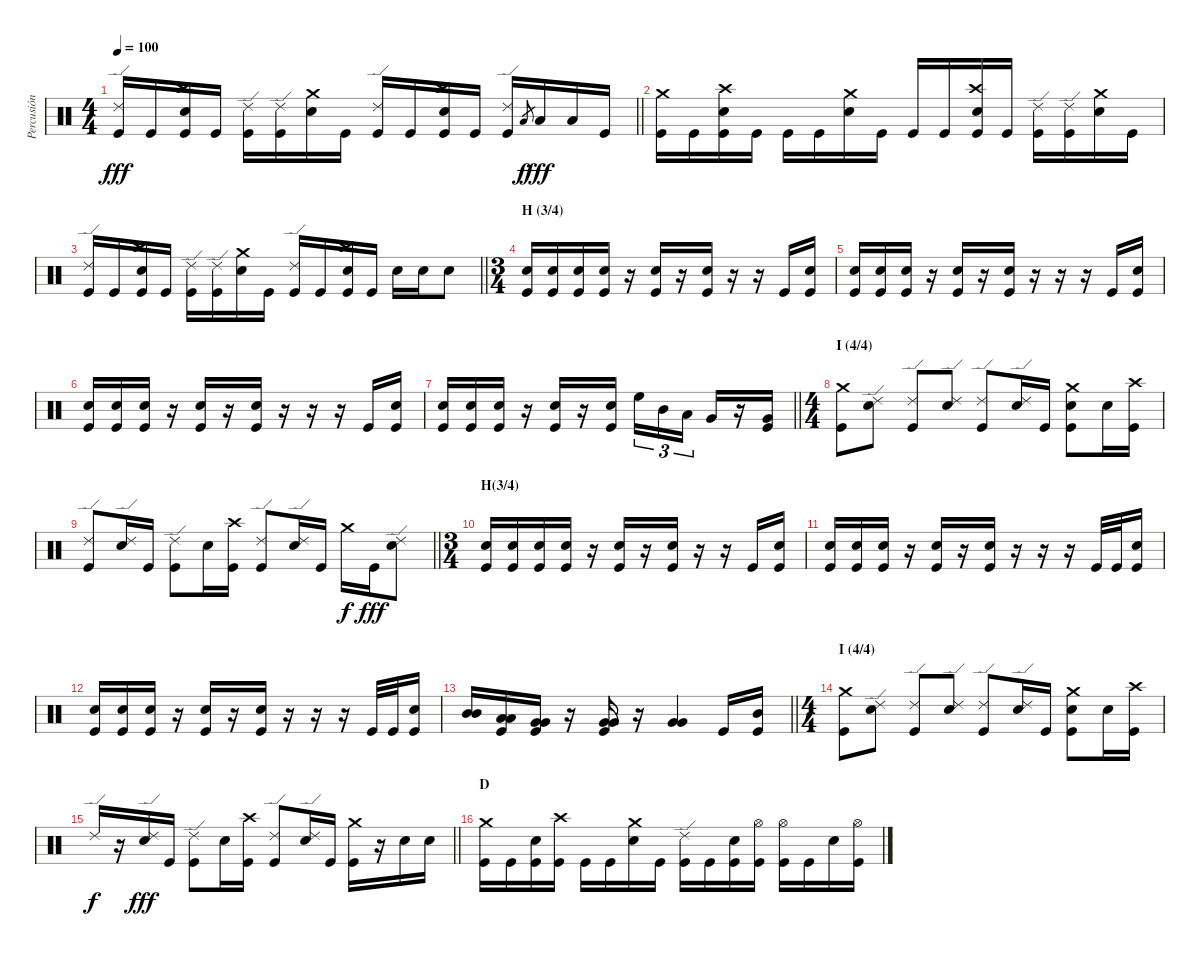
\track ("Percusión" "Percusión") {instrument percussion}
\staff {score}
\articulation defaults
\ts (4 4)
\tempo 100
\clef neutral
\barLineRight lightlight
\ks c
("Ride (edge) 2" "Kick (hit)").16{dy fff} "Kick (hit)".16 ("Crash high (hit)" "Electric Snare (hit)" "Kick (hit)").16 "Kick (hit)".16 ("Ride (edge) 2" "Kick (hit)").16 ("Ride (edge) 2" "Kick (hit)").16 ("Crash medium (hit)" "Electric Snare (hit)").16 "Kick (hit)".16 ("Ride (edge) 2" "Kick (hit)").16 "Kick (hit)".16 ("Crash high (hit)" "Electric Snare (hit)" "Kick (hit)").16 "Kick (hit)".16 ("Ride (edge) 2" "Kick (hit)").16 "Low Tom (hit)".8{gr dy f} "Low Tom (hit)".16{dy fff} "Low Tom (hit)".16 "Kick (hit)".16 |
("Crash medium (hit)" "Kick (hit)").16 "Kick (hit)".16 ("Crash high (hit)" "Electric Snare (hit)" "Kick (hit)").16 "Kick (hit)".16 "Kick (hit)".16 "Kick (hit)".16 ("Crash medium (hit)" "Electric Snare (hit)").16 "Kick (hit)".16 "Kick (hit)".16 "Kick (hit)".16 ("Crash high (hit)" "Electric Snare (hit)" "Kick (hit)").16 "Kick (hit)".16 ("Ride (edge) 2" "Kick (hit)").16 ("Ride (edge) 2" "Kick (hit)").16 ("Crash medium (hit)" "Electric Snare (hit)").16 "Kick (hit)".16 |
\barLineRight lightlight
("Ride (edge) 2" "Kick (hit)").16 "Kick (hit)".16 ("Crash high (hit)" "Electric Snare (hit)" "Kick (hit)").16 "Kick (hit)".16 ("Ride (edge) 2" "Kick (hit)").16 ("Ride (edge) 2" "Kick (hit)").16 ("Crash medium (hit)" "Electric Snare (hit)").16 "Kick (hit)".16 ("Ride (edge) 2" "Kick (hit)").16 "Kick (hit)".16 ("Crash high (hit)" "Electric Snare (hit)" "Kick (hit)").16 "Kick (hit)".16 "Electric Snare (hit)".16 "Electric Snare (hit)".16 "Electric Snare (hit)".8 |
\ts (3 4)
\section ("" "H (3/4)")
("Electric Snare (hit)" "Kick (hit)").16 ("Electric Snare (hit)" "Kick (hit)").16 ("Electric Snare (hit)" "Kick (hit)").16 ("Electric Snare (hit)" "Kick (hit)").16 r.16 ("Electric Snare (hit)" "Kick (hit)").16 r.16 ("Electric Snare (hit)" "Kick (hit)").16 r.16 r.16 "Kick (hit)".16 ("Electric Snare (hit)" "Kick (hit)").16 |
("Electric Snare (hit)" "Kick (hit)").16 ("Electric Snare (hit)" "Kick (hit)").16 ("Electric Snare (hit)" "Kick (hit)").16 r.16 ("Electric Snare (hit)" "Kick (hit)").16 r.16 ("Electric Snare (hit)" "Kick (hit)").16 r.16 r.16 r.16 "Kick (hit)".16 ("Electric Snare (hit)" "Kick (hit)").16 |
("Electric Snare (hit)" "Kick (hit)").16 ("Electric Snare (hit)" "Kick (hit)").16 ("Electric Snare (hit)" "Kick (hit)").16 r.16 ("Electric Snare (hit)" "Kick (hit)").16 r.16 ("Electric Snare (hit)" "Kick (hit)").16 r.16 r.16 r.16 "Kick (hit)".16 ("Electric Snare (hit)" "Kick (hit)").16 |
\barLineRight lightlight
("Electric Snare (hit)" "Kick (hit)").16 ("Electric Snare (hit)" "Kick (hit)").16 ("Electric Snare (hit)" "Kick (hit)").16 r.16 ("Electric Snare (hit)" "Kick (hit)").16 r.16 ("Electric Snare (hit)" "Kick (hit)").16{beam splitsecondary} "High Floor Tom (hit)".16{tu (3 2)} "Mid Tom (hit)".16{tu (3 2)} "Low Tom (hit)".16{tu (3 2)} "Very Low Tom (hit)".16 r.16 ("Very Low Tom (hit)" "Kick (hit)").16 |
\ts (4 4)
\section ("" "I (4/4)")
("Crash medium (hit)" "Kick (hit)").8 ("Ride (edge) 2" "Electric Snare (hit)").8 ("Ride (edge) 2" "Kick (hit)").8 ("Ride (edge) 2" "Electric Snare (hit)").8 ("Ride (edge) 2" "Kick (hit)").8 ("Ride (edge) 2" "Electric Snare (hit)").16 "Kick (hit)".16 ("Crash medium (hit)" "Electric Snare (hit)" "Kick (hit)").8 "Electric Snare (hit)".16 ("Crash high (hit)" "Kick (hit)").16 |
\barLineRight lightlight
("Ride (edge) 2" "Kick (hit)").8 ("Ride (edge) 2" "Electric Snare (hit)").16 "Kick (hit)".16 ("Ride (edge) 2" "Kick (hit)").8 "Electric Snare (hit)".16 ("Crash high (hit)" "Kick (hit)").16 ("Ride (edge) 2" "Kick (hit)").8 ("Ride (edge) 2" "Electric Snare (hit)").16 "Kick (hit)".16 "Crash medium (hit)".16{dy f} "Kick (hit)".16{dy fff} ("Ride (edge) 2" "Electric Snare (hit)").8 |
\ts (3 4)
\section ("" "H(3/4)")
("Electric Snare (hit)" "Kick (hit)").16 ("Electric Snare (hit)" "Kick (hit)").16 ("Electric Snare (hit)" "Kick (hit)").16 ("Electric Snare (hit)" "Kick (hit)").16 r.16 ("Electric Snare (hit)" "Kick (hit)").16 r.16 ("Electric Snare (hit)" "Kick (hit)").16 r.16 r.16 "Kick (hit)".16 ("Electric Snare (hit)" "Kick (hit)").16 |
("Electric Snare (hit)" "Kick (hit)").16 ("Electric Snare (hit)" "Kick (hit)").16 ("Electric Snare (hit)" "Kick (hit)").16 r.16 ("Electric Snare (hit)" "Kick (hit)").16 r.16 ("Electric Snare (hit)" "Kick (hit)").16 r.16 r.16 r.16 "Kick (hit)".32 "Kick (hit)".32 ("Electric Snare (hit)" "Kick (hit)").16 |
("Electric Snare (hit)" "Kick (hit)").16 ("Electric Snare (hit)" "Kick (hit)").16 ("Electric Snare (hit)" "Kick (hit)").16 r.16 ("Electric Snare (hit)" "Kick (hit)").16 r.16 ("Electric Snare (hit)" "Kick (hit)").16 r.16 r.16 r.16 "Kick (hit)".32 "Kick (hit)".32 ("Electric Snare (hit)" "Kick (hit)").16 |
\barLineRight lightlight
("Mid Tom (hit)" "Mid Tom (hit)").16 ("Low Tom (hit)" "Low Tom (hit)" "Kick (hit)").16 ("Very Low Tom (hit)" "Very Low Tom (hit)" "Kick (hit)").16 r.16 ("Very Low Tom (hit)" "Very Low Tom (hit)" "Kick (hit)").16 r.16 ("Very Low Tom (hit)" "Very Low Tom (hit)").4 "Kick (hit)".16 ("Mid Tom (hit)" "Kick (hit)").16 |
\ts (4 4)
\section ("" "I (4/4)")
("Crash medium (hit)" "Kick (hit)").8 ("Ride (edge) 2" "Electric Snare (hit)").8 ("Ride (edge) 2" "Kick (hit)").8 ("Ride (edge) 2" "Electric Snare (hit)").8 ("Ride (edge) 2" "Kick (hit)").8 ("Ride (edge) 2" "Electric Snare (hit)").16 "Kick (hit)".16 ("Crash medium (hit)" "Electric Snare (hit)" "Kick (hit)").8 "Electric Snare (hit)".16 ("Crash high (hit)" "Kick (hit)").16 |
\barLineRight lightlight "Ride (edge) 2".16{dy f}
r.16 ("Ride (edge) 2" "Electric Snare (hit)").16{dy fff} "Kick (hit)".16 ("Ride (edge) 2" "Kick (hit)").8 "Electric Snare (hit)".16 ("Crash high (hit)" "Kick (hit)").16 ("Ride (edge) 2" "Kick (hit)").8 ("Ride (edge) 2" "Electric Snare (hit)").16 "Kick (hit)".16 ("Crash medium (hit)" "Kick (hit)").16 r.16 "Electric Snare (hit)".16 "Electric Snare (hit)".16 |
\section ("" "D")
("Crash medium (hit)" "Kick (hit)").16 "Kick (hit)".16 ("Electric Snare (hit)" "Kick (hit)").16 ("Crash high (hit)" "Kick (hit)").16 "Kick (hit)".16 "Kick (hit)".16 ("Crash medium (hit)" "Electric Snare (hit)").16 "Kick (hit)".16 ("Ride (edge) 2" "Kick (hit)").16 "Kick (hit)".16 ("Electric Snare (hit)" "Kick (hit)").16 ("Hi-Hat (open)" "Kick (hit)").16 ("Hi-Hat (open)" "Kick (hit)").16 "Kick (hit)".16 "Electric Snare (hit)".16 ("Hi-Hat (open)" "Kick (hit)").16
